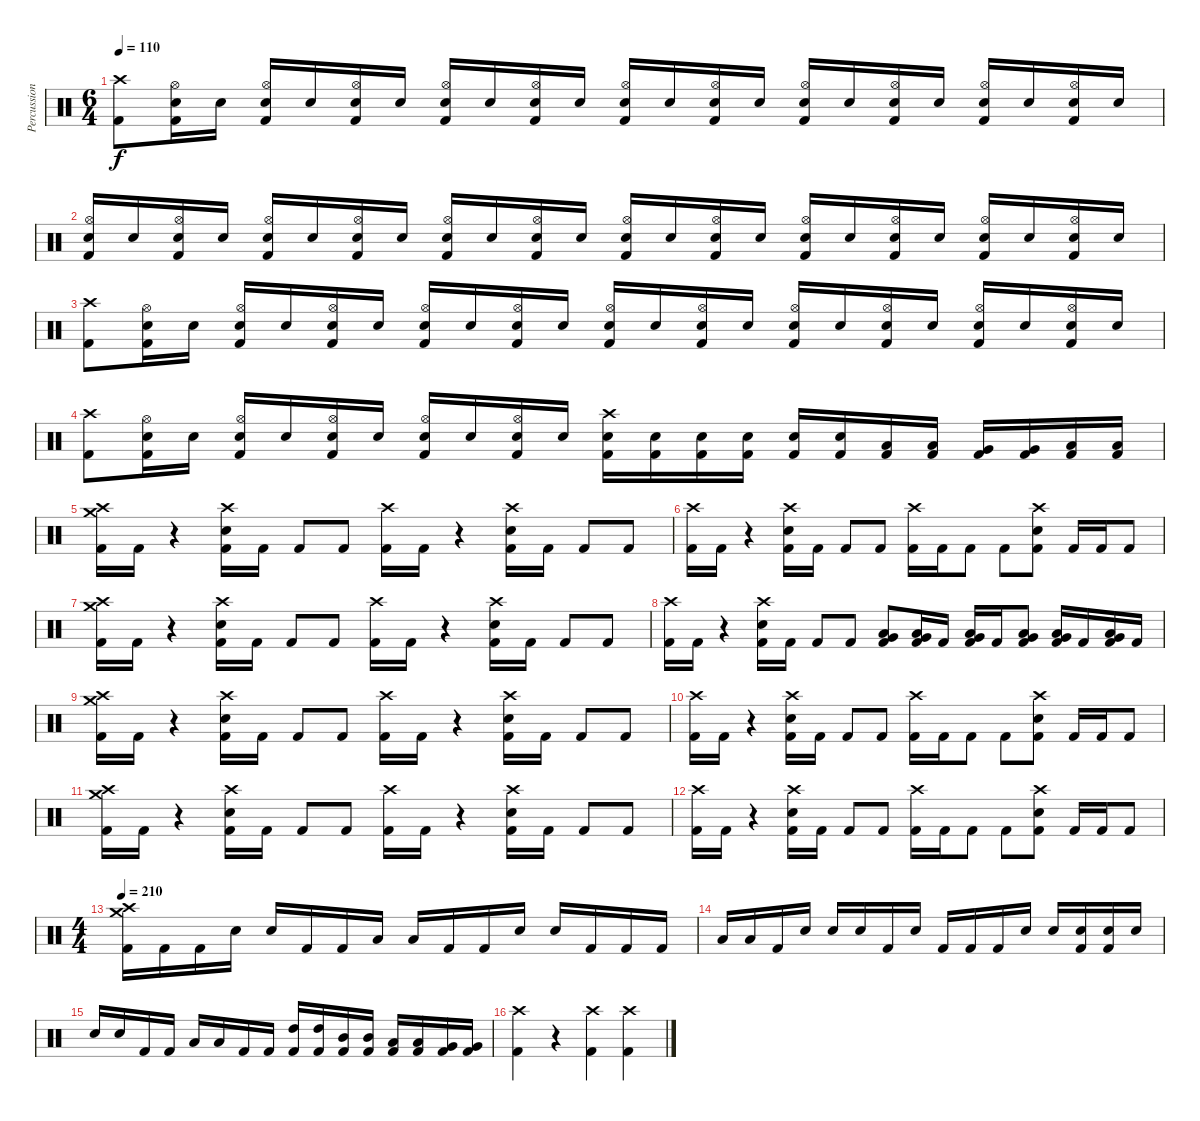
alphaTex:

\track ("Percussion" "Percussion") {instrument percussion}
\staff {score}
\articulation defaults
\ts (6 4)
\tempo 110
\clef neutral
\ks c
("Crash high (hit)" "Kick (hit) 2").8{dy f} ("Hi-Hat (open)" "Snare (hit) 2" "Kick (hit) 2").16 "Snare (hit) 2".16 ("Hi-Hat (open)" "Snare (hit) 2" "Kick (hit) 2").16 "Snare (hit) 2".16 ("Hi-Hat (open)" "Snare (hit) 2" "Kick (hit) 2").16 "Snare (hit) 2".16 ("Hi-Hat (open)" "Snare (hit) 2" "Kick (hit) 2").16 "Snare (hit) 2".16 ("Hi-Hat (open)" "Snare (hit) 2" "Kick (hit) 2").16 "Snare (hit) 2".16 ("Hi-Hat (open)" "Snare (hit) 2" "Kick (hit) 2").16 "Snare (hit) 2".16 ("Hi-Hat (open)" "Snare (hit) 2" "Kick (hit) 2").16 "Snare (hit) 2".16 ("Hi-Hat (open)" "Snare (hit) 2" "Kick (hit) 2").16 "Snare (hit) 2".16 ("Hi-Hat (open)" "Snare (hit) 2" "Kick (hit) 2").16 "Snare (hit) 2".16 ("Hi-Hat (open)" "Snare (hit) 2" "Kick (hit) 2").16 "Snare (hit) 2".16 ("Hi-Hat (open)" "Snare (hit) 2" "Kick (hit) 2").16 "Snare (hit) 2".16 |
("Hi-Hat (open)" "Snare (hit) 2" "Kick (hit) 2").16 "Snare (hit) 2".16 ("Hi-Hat (open)" "Snare (hit) 2" "Kick (hit) 2").16 "Snare (hit) 2".16 ("Hi-Hat (open)" "Snare (hit) 2" "Kick (hit) 2").16 "Snare (hit) 2".16 ("Hi-Hat (open)" "Snare (hit) 2" "Kick (hit) 2").16 "Snare (hit) 2".16 ("Hi-Hat (open)" "Snare (hit) 2" "Kick (hit) 2").16 "Snare (hit) 2".16 ("Hi-Hat (open)" "Snare (hit) 2" "Kick (hit) 2").16 "Snare (hit) 2".16 ("Hi-Hat (open)" "Snare (hit) 2" "Kick (hit) 2").16 "Snare (hit) 2".16 ("Hi-Hat (open)" "Snare (hit) 2" "Kick (hit) 2").16 "Snare (hit) 2".16 ("Hi-Hat (open)" "Snare (hit) 2" "Kick (hit) 2").16 "Snare (hit) 2".16 ("Hi-Hat (open)" "Snare (hit) 2" "Kick (hit) 2").16 "Snare (hit) 2".16 ("Hi-Hat (open)" "Snare (hit) 2" "Kick (hit) 2").16 "Snare (hit) 2".16 ("Hi-Hat (open)" "Snare (hit) 2" "Kick (hit) 2").16 "Snare (hit) 2".16 |
("Crash high (hit)" "Kick (hit) 2").8 ("Hi-Hat (open)" "Snare (hit) 2" "Kick (hit) 2").16 "Snare (hit) 2".16 ("Hi-Hat (open)" "Snare (hit) 2" "Kick (hit) 2").16 "Snare (hit) 2".16 ("Hi-Hat (open)" "Snare (hit) 2" "Kick (hit) 2").16 "Snare (hit) 2".16 ("Hi-Hat (open)" "Snare (hit) 2" "Kick (hit) 2").16 "Snare (hit) 2".16 ("Hi-Hat (open)" "Snare (hit) 2" "Kick (hit) 2").16 "Snare (hit) 2".16 ("Hi-Hat (open)" "Snare (hit) 2" "Kick (hit) 2").16 "Snare (hit) 2".16 ("Hi-Hat (open)" "Snare (hit) 2" "Kick (hit) 2").16 "Snare (hit) 2".16 ("Hi-Hat (open)" "Snare (hit) 2" "Kick (hit) 2").16 "Snare (hit) 2".16 ("Hi-Hat (open)" "Snare (hit) 2" "Kick (hit) 2").16 "Snare (hit) 2".16 ("Hi-Hat (open)" "Snare (hit) 2" "Kick (hit) 2").16 "Snare (hit) 2".16 ("Hi-Hat (open)" "Snare (hit) 2" "Kick (hit) 2").16 "Snare (hit) 2".16 |
("Crash high (hit)" "Kick (hit) 2").8 ("Hi-Hat (open)" "Snare (hit) 2" "Kick (hit) 2").16 "Snare (hit) 2".16 ("Hi-Hat (open)" "Snare (hit) 2" "Kick (hit) 2").16 "Snare (hit) 2".16 ("Hi-Hat (open)" "Snare (hit) 2" "Kick (hit) 2").16 "Snare (hit) 2".16 ("Hi-Hat (open)" "Snare (hit) 2" "Kick (hit) 2").16 "Snare (hit) 2".16 ("Hi-Hat (open)" "Snare (hit) 2" "Kick (hit) 2").16 "Snare (hit) 2".16 ("Crash high (hit)" "Snare (hit) 2" "Kick (hit) 2").16 ("Snare (hit) 2" "Kick (hit) 2").16 ("Snare (hit) 2" "Kick (hit) 2").16 ("Snare (hit) 2" "Kick (hit) 2").16 ("Snare (hit) 2" "Kick (hit) 2").16 ("Snare (hit) 2" "Kick (hit) 2").16 ("Low Tom (hit)" "Kick (hit) 2").16 ("Low Tom (hit)" "Kick (hit) 2").16 ("Very Low Tom (hit)" "Kick (hit) 2").16 ("Very Low Tom (hit)" "Kick (hit) 2").16 ("Low Floor Tom (hit)" "Kick (hit) 2").16 ("Low Floor Tom (hit)" "Kick (hit) 2").16 |
("Crash medium (hit)" "Crash high (hit)" "Kick (hit) 2").16 "Kick (hit) 2".16 r.4 ("Crash high (hit)" "Snare (hit) 2" "Kick (hit) 2").16 "Kick (hit) 2".16 "Kick (hit) 2".8 "Kick (hit) 2".8 ("Crash high (hit)" "Kick (hit) 2").16 "Kick (hit) 2".16 r.4 ("Crash high (hit)" "Snare (hit) 2" "Kick (hit) 2").16 "Kick (hit) 2".16 "Kick (hit) 2".8 "Kick (hit) 2".8 |
("Crash high (hit)" "Kick (hit) 2").16 "Kick (hit) 2".16 r.4 ("Crash high (hit)" "Snare (hit) 2" "Kick (hit) 2").16 "Kick (hit) 2".16 "Kick (hit) 2".8 "Kick (hit) 2".8 ("Crash high (hit)" "Kick (hit) 2").16 "Kick (hit) 2".16 "Kick (hit) 2".8 "Kick (hit) 2".8 ("Crash high (hit)" "Snare (hit) 2" "Kick (hit) 2").8 "Kick (hit) 2".16 "Kick (hit) 2".16 "Kick (hit) 2".8 |
("Crash medium (hit)" "Crash high (hit)" "Kick (hit) 2").16 "Kick (hit) 2".16 r.4 ("Crash high (hit)" "Snare (hit) 2" "Kick (hit) 2").16 "Kick (hit) 2".16 "Kick (hit) 2".8 "Kick (hit) 2".8 ("Crash high (hit)" "Kick (hit) 2").16 "Kick (hit) 2".16 r.4 ("Crash high (hit)" "Snare (hit) 2" "Kick (hit) 2").16 "Kick (hit) 2".16 "Kick (hit) 2".8 "Kick (hit) 2".8 |
("Crash high (hit)" "Kick (hit) 2").16 "Kick (hit) 2".16 r.4 ("Crash high (hit)" "Snare (hit) 2" "Kick (hit) 2").16 "Kick (hit) 2".16 "Kick (hit) 2".8 "Kick (hit) 2".8 ("Very Low Tom (hit)" "Low Tom (hit)" "Kick (hit) 2").8 ("Very Low Tom (hit)" "Low Tom (hit)" "Kick (hit) 2").16 "Kick (hit) 2".16 ("Very Low Tom (hit)" "Low Tom (hit)" "Kick (hit) 2").16 "Kick (hit) 2".16 ("Very Low Tom (hit)" "Low Tom (hit)" "Kick (hit) 2").8 ("Very Low Tom (hit)" "Low Tom (hit)" "Kick (hit) 2").16 "Kick (hit) 2".16 ("Very Low Tom (hit)" "Low Tom (hit)" "Kick (hit) 2").16 "Kick (hit) 2".16 |
("Crash medium (hit)" "Crash high (hit)" "Kick (hit) 2").16 "Kick (hit) 2".16 r.4 ("Crash high (hit)" "Snare (hit) 2" "Kick (hit) 2").16 "Kick (hit) 2".16 "Kick (hit) 2".8 "Kick (hit) 2".8 ("Crash high (hit)" "Kick (hit) 2").16 "Kick (hit) 2".16 r.4 ("Crash high (hit)" "Snare (hit) 2" "Kick (hit) 2").16 "Kick (hit) 2".16 "Kick (hit) 2".8 "Kick (hit) 2".8 |
("Crash high (hit)" "Kick (hit) 2").16 "Kick (hit) 2".16 r.4 ("Crash high (hit)" "Snare (hit) 2" "Kick (hit) 2").16 "Kick (hit) 2".16 "Kick (hit) 2".8 "Kick (hit) 2".8 ("Crash high (hit)" "Kick (hit) 2").16 "Kick (hit) 2".16 "Kick (hit) 2".8 "Kick (hit) 2".8 ("Crash high (hit)" "Snare (hit) 2" "Kick (hit) 2").8 "Kick (hit) 2".16 "Kick (hit) 2".16 "Kick (hit) 2".8 |
("Crash medium (hit)" "Crash high (hit)" "Kick (hit) 2").16 "Kick (hit) 2".16 r.4 ("Crash high (hit)" "Snare (hit) 2" "Kick (hit) 2").16 "Kick (hit) 2".16 "Kick (hit) 2".8 "Kick (hit) 2".8 ("Crash high (hit)" "Kick (hit) 2").16 "Kick (hit) 2".16 r.4 ("Crash high (hit)" "Snare (hit) 2" "Kick (hit) 2").16 "Kick (hit) 2".16 "Kick (hit) 2".8 "Kick (hit) 2".8 |
("Crash high (hit)" "Kick (hit) 2").16 "Kick (hit) 2".16 r.4 ("Crash high (hit)" "Snare (hit) 2" "Kick (hit) 2").16 "Kick (hit) 2".16 "Kick (hit) 2".8 "Kick (hit) 2".8 ("Crash high (hit)" "Kick (hit) 2").16 "Kick (hit) 2".16 "Kick (hit) 2".8 "Kick (hit) 2".8 ("Crash high (hit)" "Snare (hit) 2" "Kick (hit) 2").8 "Kick (hit) 2".16 "Kick (hit) 2".16 "Kick (hit) 2".8 |
\ts (4 4)
\tempo 210
("Crash medium (hit)" "Crash high (hit)" "Kick (hit) 2").16 "Kick (hit) 2".16 "Kick (hit) 2".16 "Snare (hit) 2".16 "Snare (hit) 2".16 "Kick (hit) 2".16 "Kick (hit) 2".16 "Low Floor Tom (hit)".16 "Low Floor Tom (hit)".16 "Kick (hit) 2".16 "Kick (hit) 2".16 "Snare (hit) 2".16 "Snare (hit) 2".16 "Kick (hit) 2".16 "Kick (hit) 2".16 "Kick (hit) 2".16 |
"Low Tom (hit)".16 "Low Tom (hit)".16 "Kick (hit) 2".16 "Snare (hit) 2".16 "Snare (hit) 2".16 "Snare (hit) 2".16 "Kick (hit) 2".16 "Snare (hit) 2".16 "Kick (hit) 2".16 "Kick (hit) 2".16 "Kick (hit) 2".16 "Snare (hit) 2".16 "Snare (hit) 2".16 ("Snare (hit) 2" "Kick (hit) 2").16 ("Snare (hit) 2" "Kick (hit) 2").16 "Snare (hit) 2".16 |
"Snare (hit) 2".16 "Snare (hit) 2".16 "Kick (hit) 2".16 "Kick (hit) 2".16 "Low Floor Tom (hit)".16 "Low Floor Tom (hit)".16 "Kick (hit) 2".16 "Kick (hit) 2".16 ("High Tom (hit)" "Kick (hit) 2").16 ("High Tom (hit)" "Kick (hit) 2").16 ("Mid Tom (hit)" "Kick (hit) 2").16 ("Mid Tom (hit)" "Kick (hit) 2").16 ("Low Tom (hit)" "Kick (hit) 2").16 ("Low Tom (hit)" "Kick (hit) 2").16 ("Very Low Tom (hit)" "Kick (hit) 2").16 ("Very Low Tom (hit)" "Kick (hit) 2").16 |
("Crash high (hit)" "Kick (hit) 2").4 r.4 ("Crash high (hit)" "Kick (hit) 2").4 ("Crash high (hit)" "Kick (hit) 2").4
